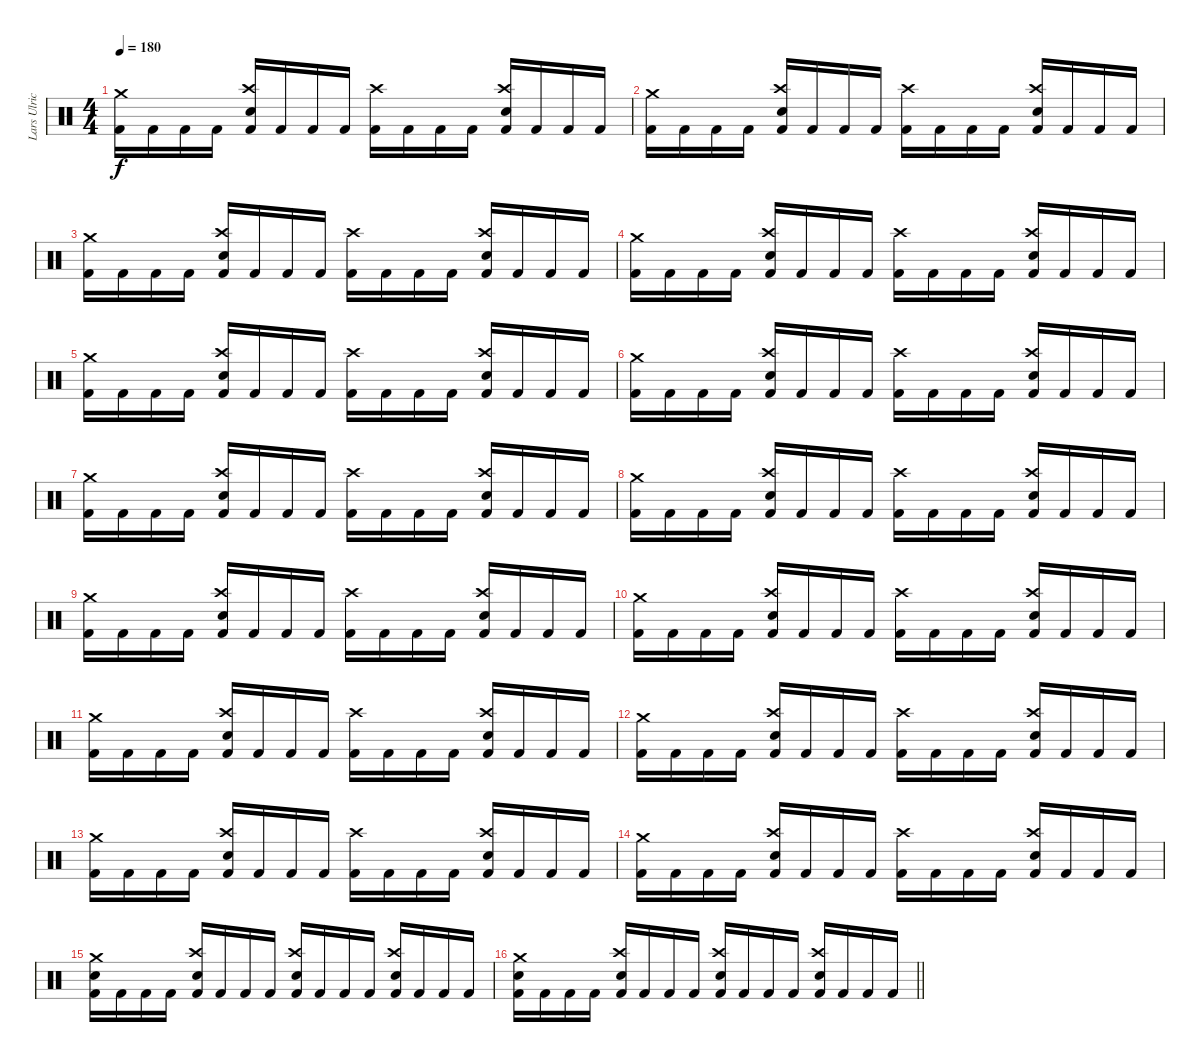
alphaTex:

\track ("Lars Ulrich" "Lars Ulric") {instrument percussion}
\staff {score}
\articulation defaults
\ts (4 4)
\tempo 180
\clef neutral
\ks c
("Crash medium (hit)" "Kick (hit) 2").16{dy f} "Kick (hit) 2".16 "Kick (hit) 2".16 "Kick (hit) 2".16 ("Crash high (hit)" "Snare (hit) 2" "Kick (hit) 2").16 "Kick (hit) 2".16 "Kick (hit) 2".16 "Kick (hit) 2".16 ("Crash high (hit)" "Kick (hit) 2").16 "Kick (hit) 2".16 "Kick (hit) 2".16 "Kick (hit) 2".16 ("Crash high (hit)" "Snare (hit) 2" "Kick (hit) 2").16 "Kick (hit) 2".16 "Kick (hit) 2".16 "Kick (hit) 2".16 |
("Crash medium (hit)" "Kick (hit) 2").16 "Kick (hit) 2".16 "Kick (hit) 2".16 "Kick (hit) 2".16 ("Crash high (hit)" "Snare (hit) 2" "Kick (hit) 2").16 "Kick (hit) 2".16 "Kick (hit) 2".16 "Kick (hit) 2".16 ("Crash high (hit)" "Kick (hit) 2").16 "Kick (hit) 2".16 "Kick (hit) 2".16 "Kick (hit) 2".16 ("Crash high (hit)" "Snare (hit) 2" "Kick (hit) 2").16 "Kick (hit) 2".16 "Kick (hit) 2".16 "Kick (hit) 2".16 |
("Crash medium (hit)" "Kick (hit) 2").16 "Kick (hit) 2".16 "Kick (hit) 2".16 "Kick (hit) 2".16 ("Crash high (hit)" "Snare (hit) 2" "Kick (hit) 2").16 "Kick (hit) 2".16 "Kick (hit) 2".16 "Kick (hit) 2".16 ("Crash high (hit)" "Kick (hit) 2").16 "Kick (hit) 2".16 "Kick (hit) 2".16 "Kick (hit) 2".16 ("Crash high (hit)" "Snare (hit) 2" "Kick (hit) 2").16 "Kick (hit) 2".16 "Kick (hit) 2".16 "Kick (hit) 2".16 |
("Crash medium (hit)" "Kick (hit) 2").16 "Kick (hit) 2".16 "Kick (hit) 2".16 "Kick (hit) 2".16 ("Crash high (hit)" "Snare (hit) 2" "Kick (hit) 2").16 "Kick (hit) 2".16 "Kick (hit) 2".16 "Kick (hit) 2".16 ("Crash high (hit)" "Kick (hit) 2").16 "Kick (hit) 2".16 "Kick (hit) 2".16 "Kick (hit) 2".16 ("Crash high (hit)" "Snare (hit) 2" "Kick (hit) 2").16 "Kick (hit) 2".16 "Kick (hit) 2".16 "Kick (hit) 2".16 |
("Crash medium (hit)" "Kick (hit) 2").16 "Kick (hit) 2".16 "Kick (hit) 2".16 "Kick (hit) 2".16 ("Crash high (hit)" "Snare (hit) 2" "Kick (hit) 2").16 "Kick (hit) 2".16 "Kick (hit) 2".16 "Kick (hit) 2".16 ("Crash high (hit)" "Kick (hit) 2").16 "Kick (hit) 2".16 "Kick (hit) 2".16 "Kick (hit) 2".16 ("Crash high (hit)" "Snare (hit) 2" "Kick (hit) 2").16 "Kick (hit) 2".16 "Kick (hit) 2".16 "Kick (hit) 2".16 |
("Crash medium (hit)" "Kick (hit) 2").16 "Kick (hit) 2".16 "Kick (hit) 2".16 "Kick (hit) 2".16 ("Crash high (hit)" "Snare (hit) 2" "Kick (hit) 2").16 "Kick (hit) 2".16 "Kick (hit) 2".16 "Kick (hit) 2".16 ("Crash high (hit)" "Kick (hit) 2").16 "Kick (hit) 2".16 "Kick (hit) 2".16 "Kick (hit) 2".16 ("Crash high (hit)" "Snare (hit) 2" "Kick (hit) 2").16 "Kick (hit) 2".16 "Kick (hit) 2".16 "Kick (hit) 2".16 |
("Crash medium (hit)" "Kick (hit) 2").16 "Kick (hit) 2".16 "Kick (hit) 2".16 "Kick (hit) 2".16 ("Crash high (hit)" "Snare (hit) 2" "Kick (hit) 2").16 "Kick (hit) 2".16 "Kick (hit) 2".16 "Kick (hit) 2".16 ("Crash high (hit)" "Kick (hit) 2").16 "Kick (hit) 2".16 "Kick (hit) 2".16 "Kick (hit) 2".16 ("Crash high (hit)" "Snare (hit) 2" "Kick (hit) 2").16 "Kick (hit) 2".16 "Kick (hit) 2".16 "Kick (hit) 2".16 |
("Crash medium (hit)" "Kick (hit) 2").16 "Kick (hit) 2".16 "Kick (hit) 2".16 "Kick (hit) 2".16 ("Crash high (hit)" "Snare (hit) 2" "Kick (hit) 2").16 "Kick (hit) 2".16 "Kick (hit) 2".16 "Kick (hit) 2".16 ("Crash high (hit)" "Kick (hit) 2").16 "Kick (hit) 2".16 "Kick (hit) 2".16 "Kick (hit) 2".16 ("Crash high (hit)" "Snare (hit) 2" "Kick (hit) 2").16 "Kick (hit) 2".16 "Kick (hit) 2".16 "Kick (hit) 2".16 |
("Crash medium (hit)" "Kick (hit) 2").16 "Kick (hit) 2".16 "Kick (hit) 2".16 "Kick (hit) 2".16 ("Crash high (hit)" "Snare (hit) 2" "Kick (hit) 2").16 "Kick (hit) 2".16 "Kick (hit) 2".16 "Kick (hit) 2".16 ("Crash high (hit)" "Kick (hit) 2").16 "Kick (hit) 2".16 "Kick (hit) 2".16 "Kick (hit) 2".16 ("Crash high (hit)" "Snare (hit) 2" "Kick (hit) 2").16 "Kick (hit) 2".16 "Kick (hit) 2".16 "Kick (hit) 2".16 |
("Crash medium (hit)" "Kick (hit) 2").16 "Kick (hit) 2".16 "Kick (hit) 2".16 "Kick (hit) 2".16 ("Crash high (hit)" "Snare (hit) 2" "Kick (hit) 2").16 "Kick (hit) 2".16 "Kick (hit) 2".16 "Kick (hit) 2".16 ("Crash high (hit)" "Kick (hit) 2").16 "Kick (hit) 2".16 "Kick (hit) 2".16 "Kick (hit) 2".16 ("Crash high (hit)" "Snare (hit) 2" "Kick (hit) 2").16 "Kick (hit) 2".16 "Kick (hit) 2".16 "Kick (hit) 2".16 |
("Crash medium (hit)" "Kick (hit) 2").16 "Kick (hit) 2".16 "Kick (hit) 2".16 "Kick (hit) 2".16 ("Crash high (hit)" "Snare (hit) 2" "Kick (hit) 2").16 "Kick (hit) 2".16 "Kick (hit) 2".16 "Kick (hit) 2".16 ("Crash high (hit)" "Kick (hit) 2").16 "Kick (hit) 2".16 "Kick (hit) 2".16 "Kick (hit) 2".16 ("Crash high (hit)" "Snare (hit) 2" "Kick (hit) 2").16 "Kick (hit) 2".16 "Kick (hit) 2".16 "Kick (hit) 2".16 |
("Crash medium (hit)" "Kick (hit) 2").16 "Kick (hit) 2".16 "Kick (hit) 2".16 "Kick (hit) 2".16 ("Crash high (hit)" "Snare (hit) 2" "Kick (hit) 2").16 "Kick (hit) 2".16 "Kick (hit) 2".16 "Kick (hit) 2".16 ("Crash high (hit)" "Kick (hit) 2").16 "Kick (hit) 2".16 "Kick (hit) 2".16 "Kick (hit) 2".16 ("Crash high (hit)" "Snare (hit) 2" "Kick (hit) 2").16 "Kick (hit) 2".16 "Kick (hit) 2".16 "Kick (hit) 2".16 |
("Crash medium (hit)" "Kick (hit) 2").16 "Kick (hit) 2".16 "Kick (hit) 2".16 "Kick (hit) 2".16 ("Crash high (hit)" "Snare (hit) 2" "Kick (hit) 2").16 "Kick (hit) 2".16 "Kick (hit) 2".16 "Kick (hit) 2".16 ("Crash high (hit)" "Kick (hit) 2").16 "Kick (hit) 2".16 "Kick (hit) 2".16 "Kick (hit) 2".16 ("Crash high (hit)" "Snare (hit) 2" "Kick (hit) 2").16 "Kick (hit) 2".16 "Kick (hit) 2".16 "Kick (hit) 2".16 |
("Crash medium (hit)" "Kick (hit) 2").16 "Kick (hit) 2".16 "Kick (hit) 2".16 "Kick (hit) 2".16 ("Crash high (hit)" "Snare (hit) 2" "Kick (hit) 2").16 "Kick (hit) 2".16 "Kick (hit) 2".16 "Kick (hit) 2".16 ("Crash high (hit)" "Kick (hit) 2").16 "Kick (hit) 2".16 "Kick (hit) 2".16 "Kick (hit) 2".16 ("Crash high (hit)" "Snare (hit) 2" "Kick (hit) 2").16 "Kick (hit) 2".16 "Kick (hit) 2".16 "Kick (hit) 2".16 |
("Crash medium (hit)" "Snare (hit) 2" "Kick (hit) 2").16 "Kick (hit) 2".16 "Kick (hit) 2".16 "Kick (hit) 2".16 ("Crash high (hit)" "Snare (hit) 2" "Kick (hit) 2").16 "Kick (hit) 2".16 "Kick (hit) 2".16 "Kick (hit) 2".16 ("Crash high (hit)" "Snare (hit) 2" "Kick (hit) 2").16 "Kick (hit) 2".16 "Kick (hit) 2".16 "Kick (hit) 2".16 ("Crash high (hit)" "Snare (hit) 2" "Kick (hit) 2").16 "Kick (hit) 2".16 "Kick (hit) 2".16 "Kick (hit) 2".16 |
\barLineRight lightlight
("Crash medium (hit)" "Snare (hit) 2" "Kick (hit) 2").16 "Kick (hit) 2".16 "Kick (hit) 2".16 "Kick (hit) 2".16 ("Crash high (hit)" "Snare (hit) 2" "Kick (hit) 2").16 "Kick (hit) 2".16 "Kick (hit) 2".16 "Kick (hit) 2".16 ("Crash high (hit)" "Snare (hit) 2" "Kick (hit) 2").16 "Kick (hit) 2".16 "Kick (hit) 2".16 "Kick (hit) 2".16 ("Crash high (hit)" "Snare (hit) 2" "Kick (hit) 2").16 "Kick (hit) 2".16 "Kick (hit) 2".16 "Kick (hit) 2".16
